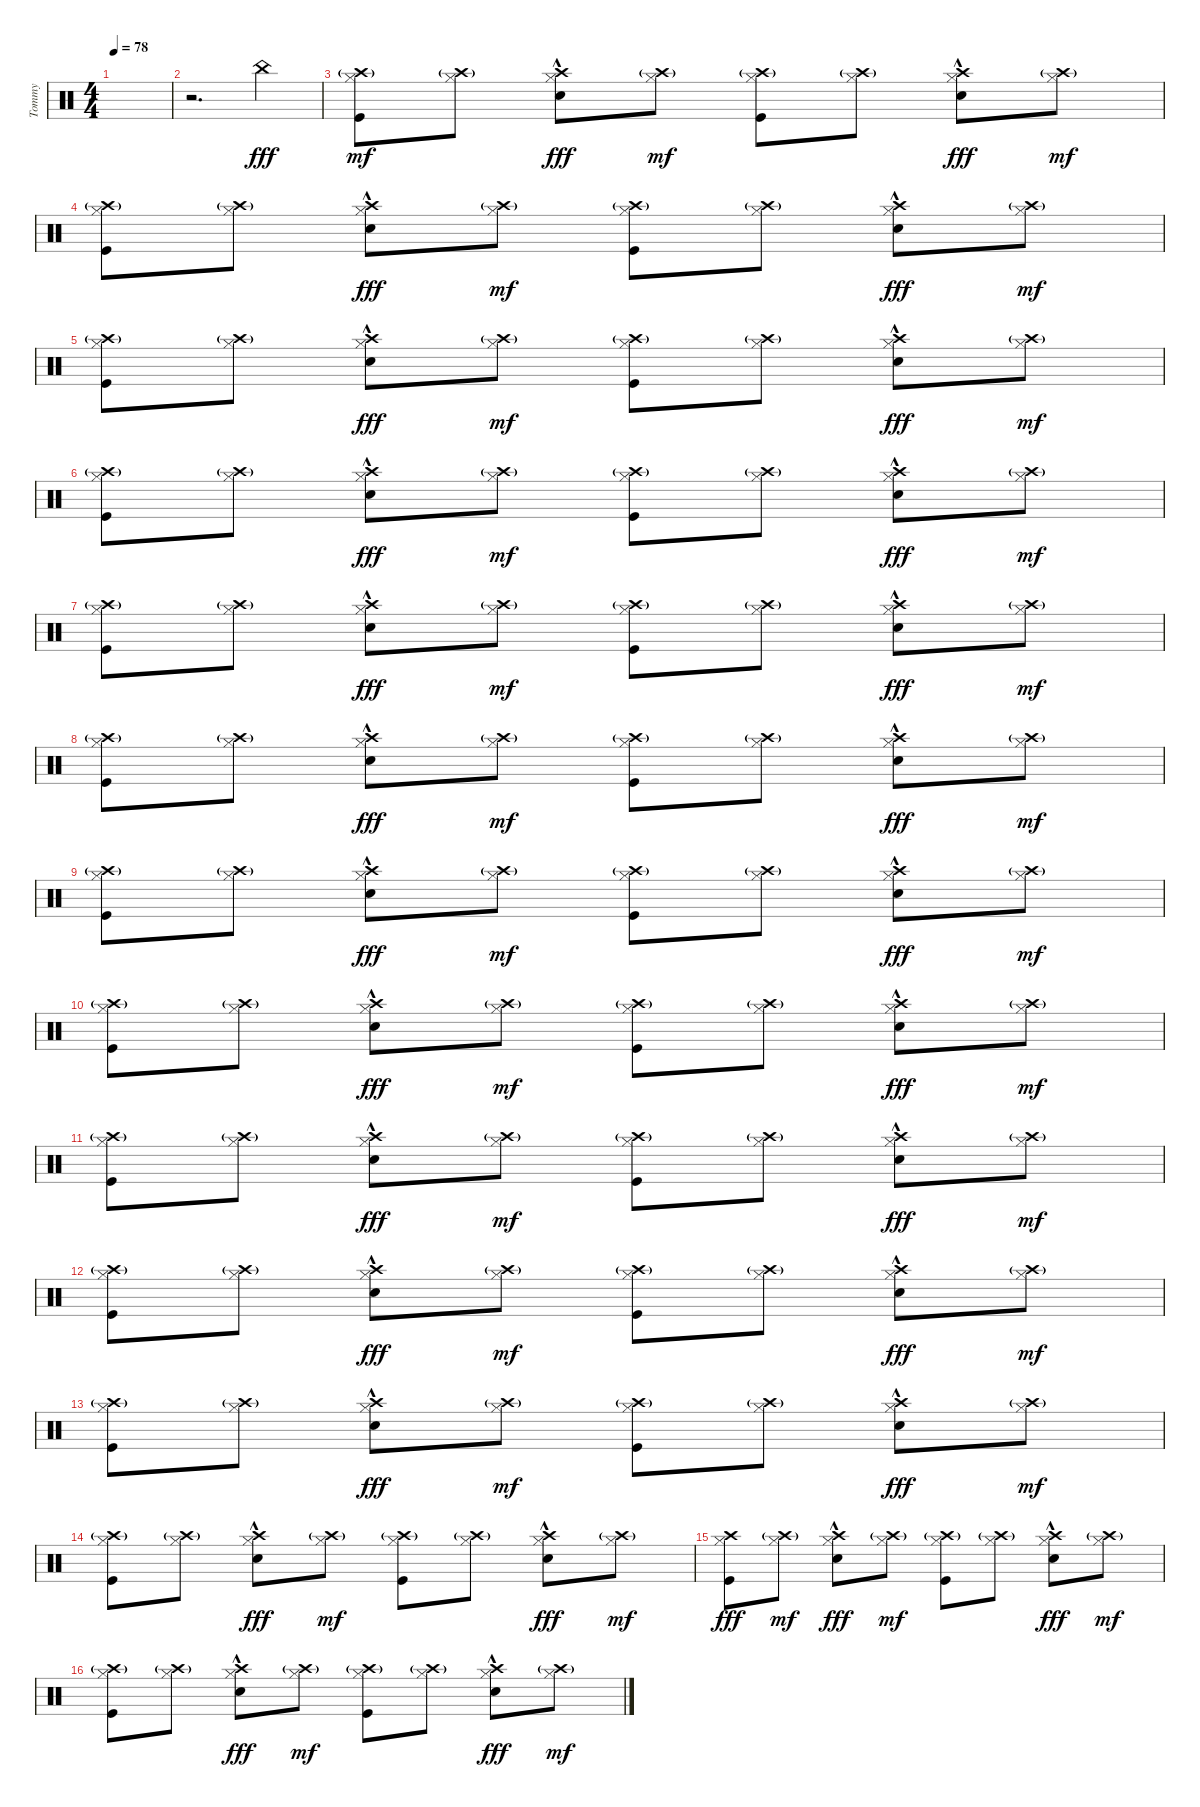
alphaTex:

\track ("Tommy" "Tommy") {instrument percussion}
\staff {score}
\articulation defaults
\ts (4 4)
\tempo 78
\clef neutral
\ks c
|
r.2{d} "China (hit)".4{dy fff} |
("Crash high (hit)"{g} "Hi-Hat (closed)" "Kick (hit)").8{dy mf} ("Crash high (hit)"{g} "Hi-Hat (closed)").8 ("Crash high (hit)" "Hi-Hat (closed)" "Electric Snare (hit)"{hac}).8{dy fff} ("Crash high (hit)"{g} "Hi-Hat (closed)").8{dy mf} ("Crash high (hit)"{g} "Hi-Hat (closed)" "Kick (hit)").8 ("Crash high (hit)"{g} "Hi-Hat (closed)").8 ("Crash high (hit)" "Hi-Hat (closed)" "Electric Snare (hit)"{hac}).8{dy fff} ("Crash high (hit)"{g} "Hi-Hat (closed)").8{dy mf} |
("Crash high (hit)"{g} "Hi-Hat (closed)" "Kick (hit)").8 ("Crash high (hit)"{g} "Hi-Hat (closed)").8 ("Crash high (hit)" "Hi-Hat (closed)" "Electric Snare (hit)"{hac}).8{dy fff} ("Crash high (hit)"{g} "Hi-Hat (closed)").8{dy mf} ("Crash high (hit)"{g} "Hi-Hat (closed)" "Kick (hit)").8 ("Crash high (hit)"{g} "Hi-Hat (closed)").8 ("Crash high (hit)" "Hi-Hat (closed)" "Electric Snare (hit)"{hac}).8{dy fff} ("Crash high (hit)"{g} "Hi-Hat (closed)").8{dy mf} |
("Crash high (hit)"{g} "Hi-Hat (closed)" "Kick (hit)").8 ("Crash high (hit)"{g} "Hi-Hat (closed)").8 ("Crash high (hit)" "Hi-Hat (closed)" "Electric Snare (hit)"{hac}).8{dy fff} ("Crash high (hit)"{g} "Hi-Hat (closed)").8{dy mf} ("Crash high (hit)"{g} "Hi-Hat (closed)" "Kick (hit)").8 ("Crash high (hit)"{g} "Hi-Hat (closed)").8 ("Crash high (hit)" "Hi-Hat (closed)" "Electric Snare (hit)"{hac}).8{dy fff} ("Crash high (hit)"{g} "Hi-Hat (closed)").8{dy mf} |
("Crash high (hit)"{g} "Hi-Hat (closed)" "Kick (hit)").8 ("Crash high (hit)"{g} "Hi-Hat (closed)").8 ("Crash high (hit)" "Hi-Hat (closed)" "Electric Snare (hit)"{hac}).8{dy fff} ("Crash high (hit)"{g} "Hi-Hat (closed)").8{dy mf} ("Crash high (hit)"{g} "Hi-Hat (closed)" "Kick (hit)").8 ("Crash high (hit)"{g} "Hi-Hat (closed)").8 ("Crash high (hit)" "Hi-Hat (closed)" "Electric Snare (hit)"{hac}).8{dy fff} ("Crash high (hit)"{g} "Hi-Hat (closed)").8{dy mf} |
("Crash high (hit)"{g} "Hi-Hat (closed)" "Kick (hit)").8 ("Crash high (hit)"{g} "Hi-Hat (closed)").8 ("Crash high (hit)" "Hi-Hat (closed)" "Electric Snare (hit)"{hac}).8{dy fff} ("Crash high (hit)"{g} "Hi-Hat (closed)").8{dy mf} ("Crash high (hit)"{g} "Hi-Hat (closed)" "Kick (hit)").8 ("Crash high (hit)"{g} "Hi-Hat (closed)").8 ("Crash high (hit)" "Hi-Hat (closed)" "Electric Snare (hit)"{hac}).8{dy fff} ("Crash high (hit)"{g} "Hi-Hat (closed)").8{dy mf} |
("Crash high (hit)"{g} "Hi-Hat (closed)" "Kick (hit)").8 ("Crash high (hit)"{g} "Hi-Hat (closed)").8 ("Crash high (hit)" "Hi-Hat (closed)" "Electric Snare (hit)"{hac}).8{dy fff} ("Crash high (hit)"{g} "Hi-Hat (closed)").8{dy mf} ("Crash high (hit)"{g} "Hi-Hat (closed)" "Kick (hit)").8 ("Crash high (hit)"{g} "Hi-Hat (closed)").8 ("Crash high (hit)" "Hi-Hat (closed)" "Electric Snare (hit)"{hac}).8{dy fff} ("Crash high (hit)"{g} "Hi-Hat (closed)").8{dy mf} |
("Crash high (hit)"{g} "Hi-Hat (closed)" "Kick (hit)").8 ("Crash high (hit)"{g} "Hi-Hat (closed)").8 ("Crash high (hit)" "Hi-Hat (closed)" "Electric Snare (hit)"{hac}).8{dy fff} ("Crash high (hit)"{g} "Hi-Hat (closed)").8{dy mf} ("Crash high (hit)"{g} "Hi-Hat (closed)" "Kick (hit)").8 ("Crash high (hit)"{g} "Hi-Hat (closed)").8 ("Crash high (hit)" "Hi-Hat (closed)" "Electric Snare (hit)"{hac}).8{dy fff} ("Crash high (hit)"{g} "Hi-Hat (closed)").8{dy mf} |
("Crash high (hit)"{g} "Hi-Hat (closed)" "Kick (hit)").8 ("Crash high (hit)"{g} "Hi-Hat (closed)").8 ("Crash high (hit)" "Hi-Hat (closed)" "Electric Snare (hit)"{hac}).8{dy fff} ("Crash high (hit)"{g} "Hi-Hat (closed)").8{dy mf} ("Crash high (hit)"{g} "Hi-Hat (closed)" "Kick (hit)").8 ("Crash high (hit)"{g} "Hi-Hat (closed)").8 ("Crash high (hit)" "Hi-Hat (closed)" "Electric Snare (hit)"{hac}).8{dy fff} ("Crash high (hit)"{g} "Hi-Hat (closed)").8{dy mf} |
("Crash high (hit)"{g} "Hi-Hat (closed)" "Kick (hit)").8 ("Crash high (hit)"{g} "Hi-Hat (closed)").8 ("Crash high (hit)" "Hi-Hat (closed)" "Electric Snare (hit)"{hac}).8{dy fff} ("Crash high (hit)"{g} "Hi-Hat (closed)").8{dy mf} ("Crash high (hit)"{g} "Hi-Hat (closed)" "Kick (hit)").8 ("Crash high (hit)"{g} "Hi-Hat (closed)").8 ("Crash high (hit)" "Hi-Hat (closed)" "Electric Snare (hit)"{hac}).8{dy fff} ("Crash high (hit)"{g} "Hi-Hat (closed)").8{dy mf} |
("Crash high (hit)"{g} "Hi-Hat (closed)" "Kick (hit)").8 ("Crash high (hit)"{g} "Hi-Hat (closed)").8 ("Crash high (hit)" "Hi-Hat (closed)" "Electric Snare (hit)"{hac}).8{dy fff} ("Crash high (hit)"{g} "Hi-Hat (closed)").8{dy mf} ("Crash high (hit)"{g} "Hi-Hat (closed)" "Kick (hit)").8 ("Crash high (hit)"{g} "Hi-Hat (closed)").8 ("Crash high (hit)" "Hi-Hat (closed)" "Electric Snare (hit)"{hac}).8{dy fff} ("Crash high (hit)"{g} "Hi-Hat (closed)").8{dy mf} |
("Crash high (hit)"{g} "Hi-Hat (closed)" "Kick (hit)").8 ("Crash high (hit)"{g} "Hi-Hat (closed)").8 ("Crash high (hit)" "Hi-Hat (closed)" "Electric Snare (hit)"{hac}).8{dy fff} ("Crash high (hit)"{g} "Hi-Hat (closed)").8{dy mf} ("Crash high (hit)"{g} "Hi-Hat (closed)" "Kick (hit)").8 ("Crash high (hit)"{g} "Hi-Hat (closed)").8 ("Crash high (hit)" "Hi-Hat (closed)" "Electric Snare (hit)"{hac}).8{dy fff} ("Crash high (hit)"{g} "Hi-Hat (closed)").8{dy mf} |
("Crash high (hit)"{g} "Hi-Hat (closed)" "Kick (hit)").8 ("Crash high (hit)"{g} "Hi-Hat (closed)").8 ("Crash high (hit)" "Hi-Hat (closed)" "Electric Snare (hit)"{hac}).8{dy fff} ("Crash high (hit)"{g} "Hi-Hat (closed)").8{dy mf} ("Crash high (hit)"{g} "Hi-Hat (closed)" "Kick (hit)").8 ("Crash high (hit)"{g} "Hi-Hat (closed)").8 ("Crash high (hit)" "Hi-Hat (closed)" "Electric Snare (hit)"{hac}).8{dy fff} ("Crash high (hit)"{g} "Hi-Hat (closed)").8{dy mf} |
("Crash high (hit)" "Hi-Hat (closed)" "Kick (hit)").8{dy fff} ("Crash high (hit)"{g} "Hi-Hat (closed)").8{dy mf} ("Crash high (hit)" "Hi-Hat (closed)" "Electric Snare (hit)"{hac}).8{dy fff} ("Crash high (hit)"{g} "Hi-Hat (closed)").8{dy mf} ("Crash high (hit)"{g} "Hi-Hat (closed)" "Kick (hit)").8 ("Crash high (hit)"{g} "Hi-Hat (closed)").8 ("Crash high (hit)" "Hi-Hat (closed)" "Electric Snare (hit)"{hac}).8{dy fff} ("Crash high (hit)"{g} "Hi-Hat (closed)").8{dy mf} |
("Crash high (hit)"{g} "Hi-Hat (closed)" "Kick (hit)").8 ("Crash high (hit)"{g} "Hi-Hat (closed)").8 ("Crash high (hit)" "Hi-Hat (closed)" "Electric Snare (hit)"{hac}).8{dy fff} ("Crash high (hit)"{g} "Hi-Hat (closed)").8{dy mf} ("Crash high (hit)"{g} "Hi-Hat (closed)" "Kick (hit)").8 ("Crash high (hit)"{g} "Hi-Hat (closed)").8 ("Crash high (hit)" "Hi-Hat (closed)" "Electric Snare (hit)"{hac}).8{dy fff} ("Crash high (hit)"{g} "Hi-Hat (closed)").8{dy mf}
